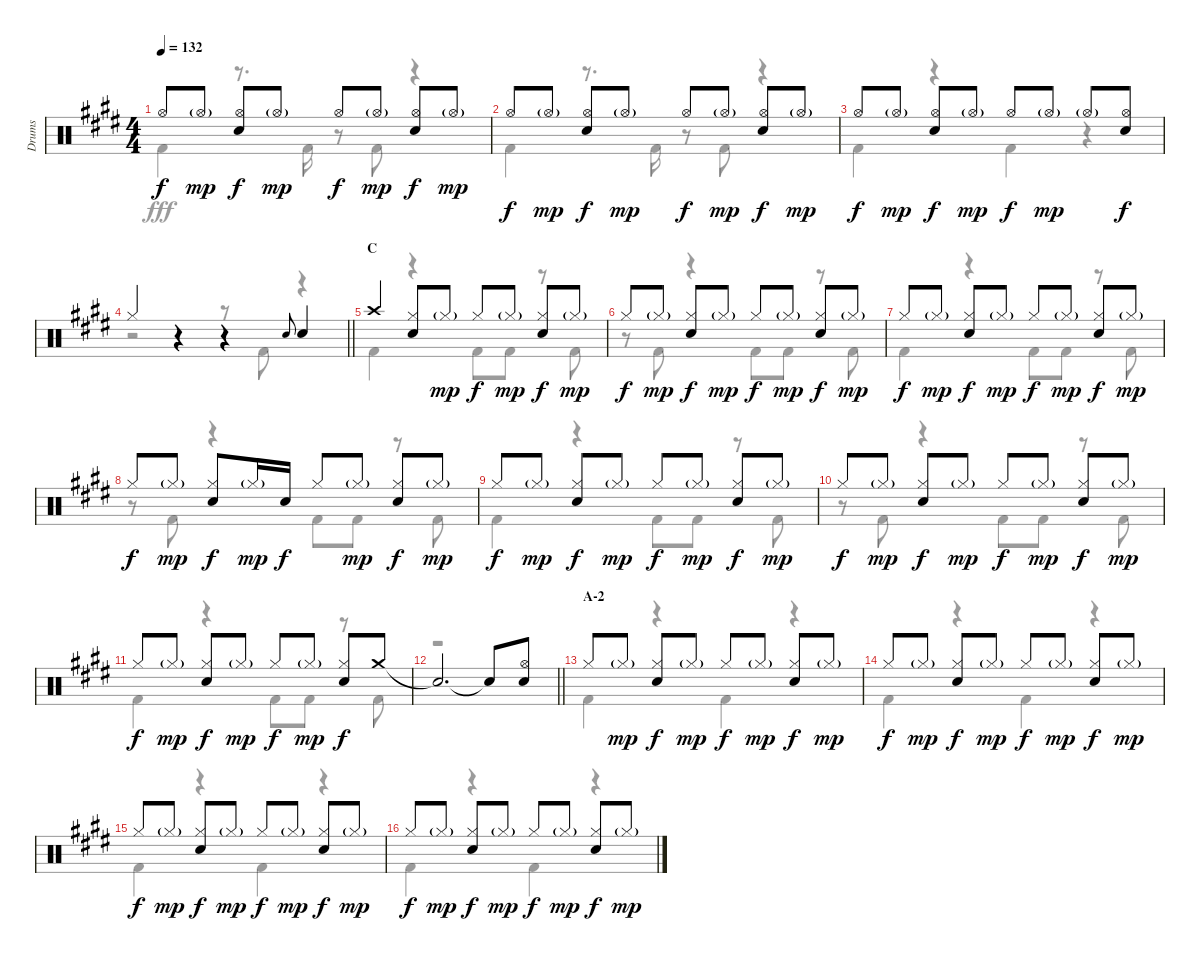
\track ("Drums" "Drums") {instrument percussion}
\staff {score}
\articulation defaults
\voice
\ts (4 4)
\tempo 132
\clef neutral
\ks e "Hi-Hat (open)".8{dy f} "Hi-Hat (open)"{g}.8{dy mp}
("Hi-Hat (open)" "Snare (hit) 2").8{dy f} "Hi-Hat (open)"{g}.8{dy mp} "Hi-Hat (open)".8{dy f} "Hi-Hat (open)"{g}.8{dy mp} ("Hi-Hat (open)" "Snare (hit) 2").8{dy f} "Hi-Hat (open)"{g}.8{dy mp} |
"Hi-Hat (open)".8{dy f} "Hi-Hat (open)"{g}.8{dy mp} ("Hi-Hat (open)" "Snare (hit) 2").8{dy f} "Hi-Hat (open)"{g}.8{dy mp} "Hi-Hat (open)".8{dy f} "Hi-Hat (open)"{g}.8{dy mp} ("Hi-Hat (open)" "Snare (hit) 2").8{dy f} "Hi-Hat (open)"{g}.8{dy mp} |
"Hi-Hat (open)".8{dy f} "Hi-Hat (open)"{g}.8{dy mp} ("Hi-Hat (open)" "Snare (hit) 2").8{dy f} "Hi-Hat (open)"{g}.8{dy mp} "Hi-Hat (open)".8{dy f} "Hi-Hat (open)"{g}.8{dy mp} "Hi-Hat (open)"{g}.8 ("Hi-Hat (open)" "Snare (hit) 2").8{dy f} |
\barLineRight lightlight "Hi-Hat (closed)".4
r.4 r.4 "Snare (hit) 2".8{gr onbeat} "Snare (hit) 2".4 |
\section ("" "C")
"Crash high (hit)".4 ("Hi-Hat (closed)" "Snare (hit) 2").8 "Hi-Hat (closed)"{g}.8{dy mp} "Hi-Hat (closed)".8{dy f} "Hi-Hat (closed)"{g}.8{dy mp} ("Hi-Hat (closed)" "Snare (hit) 2").8{dy f} "Hi-Hat (closed)"{g}.8{dy mp} |
"Hi-Hat (closed)".8{dy f} "Hi-Hat (closed)"{g}.8{dy mp} ("Hi-Hat (closed)" "Snare (hit) 2").8{dy f} "Hi-Hat (closed)"{g}.8{dy mp} "Hi-Hat (closed)".8{dy f} "Hi-Hat (closed)"{g}.8{dy mp} ("Hi-Hat (closed)" "Snare (hit) 2").8{dy f} "Hi-Hat (closed)"{g}.8{dy mp} |
"Hi-Hat (closed)".8{dy f} "Hi-Hat (closed)"{g}.8{dy mp} ("Hi-Hat (closed)" "Snare (hit) 2").8{dy f} "Hi-Hat (closed)"{g}.8{dy mp} "Hi-Hat (closed)".8{dy f} "Hi-Hat (closed)"{g}.8{dy mp} ("Hi-Hat (closed)" "Snare (hit) 2").8{dy f} "Hi-Hat (closed)"{g}.8{dy mp} |
"Hi-Hat (closed)".8{dy f} "Hi-Hat (closed)"{g}.8{dy mp} ("Hi-Hat (closed)" "Snare (hit) 2").8{dy f} "Hi-Hat (closed)"{g}.16{dy mp} "Snare (hit) 2".16{dy f} "Hi-Hat (closed)".8 "Hi-Hat (closed)"{g}.8{dy mp} ("Hi-Hat (closed)" "Snare (hit) 2").8{dy f} "Hi-Hat (closed)"{g}.8{dy mp} |
"Hi-Hat (closed)".8{dy f} "Hi-Hat (closed)"{g}.8{dy mp} ("Hi-Hat (closed)" "Snare (hit) 2").8{dy f} "Hi-Hat (closed)"{g}.8{dy mp} "Hi-Hat (closed)".8{dy f} "Hi-Hat (closed)"{g}.8{dy mp} ("Hi-Hat (closed)" "Snare (hit) 2").8{dy f} "Hi-Hat (closed)"{g}.8{dy mp} |
"Hi-Hat (closed)".8{dy f} "Hi-Hat (closed)"{g}.8{dy mp} ("Hi-Hat (closed)" "Snare (hit) 2").8{dy f} "Hi-Hat (closed)"{g}.8{dy mp} "Hi-Hat (closed)".8{dy f} "Hi-Hat (closed)"{g}.8{dy mp} ("Hi-Hat (closed)" "Snare (hit) 2").8{dy f} "Hi-Hat (closed)"{g}.8{dy mp} |
"Hi-Hat (closed)".8{dy f} "Hi-Hat (closed)"{g}.8{dy mp} ("Hi-Hat (closed)" "Snare (hit) 2").8{dy f} "Hi-Hat (closed)"{g}.8{dy mp} "Hi-Hat (closed)".8{dy f} "Hi-Hat (closed)"{g}.8{dy mp} ("Hi-Hat (closed)" "Snare (hit) 2").8{dy f} "Crash medium (hit)".8 |
\barLineRight lightlight "Snare (hit)"{t}.2{d} "Snare (hit)"{t}.8
("Hi-Hat (open)" "Snare (hit) 2").8 |
\section ("" "A-2")
"Hi-Hat (closed)".8 "Hi-Hat (closed)"{g}.8{dy mp} ("Hi-Hat (closed)" "Snare (hit) 2").8{dy f} "Hi-Hat (closed)"{g}.8{dy mp} "Hi-Hat (closed)".8{dy f} "Hi-Hat (closed)"{g}.8{dy mp} ("Hi-Hat (closed)" "Snare (hit) 2").8{dy f} "Hi-Hat (closed)"{g}.8{dy mp} |
"Hi-Hat (closed)".8{dy f} "Hi-Hat (closed)"{g}.8{dy mp} ("Hi-Hat (closed)" "Snare (hit) 2").8{dy f} "Hi-Hat (closed)"{g}.8{dy mp} "Hi-Hat (closed)".8{dy f} "Hi-Hat (closed)"{g}.8{dy mp} ("Hi-Hat (closed)" "Snare (hit) 2").8{dy f} "Hi-Hat (closed)"{g}.8{dy mp} |
"Hi-Hat (closed)".8{dy f} "Hi-Hat (closed)"{g}.8{dy mp} ("Hi-Hat (closed)" "Snare (hit) 2").8{dy f} "Hi-Hat (closed)"{g}.8{dy mp} "Hi-Hat (closed)".8{dy f} "Hi-Hat (closed)"{g}.8{dy mp} ("Hi-Hat (closed)" "Snare (hit) 2").8{dy f} "Hi-Hat (closed)"{g}.8{dy mp} |
"Hi-Hat (closed)".8{dy f} "Hi-Hat (closed)"{g}.8{dy mp} ("Hi-Hat (closed)" "Snare (hit) 2").8{dy f} "Hi-Hat (closed)"{g}.8{dy mp} "Hi-Hat (closed)".8{dy f} "Hi-Hat (closed)"{g}.8{dy mp} ("Hi-Hat (closed)" "Snare (hit) 2").8{dy f} "Hi-Hat (closed)"{g}.8{dy mp}
\voice
\clef neutral
\ottava regular
\simile none
\ks e "Kick (hit) 2".4{dy fff}
r.8{d} "Kick (hit) 2".16 r.8 "Kick (hit) 2".8 r.4 |
"Kick (hit) 2".4 r.8{d} "Kick (hit) 2".16 r.8 "Kick (hit) 2".8 r.4 |
"Kick (hit) 2".4 r.4 "Kick (hit) 2".4 r.4 |
\barLineRight lightlight
r.2 r.8 "Kick (hit) 2".8 r.4 |
"Kick (hit) 2".4 r.4 "Kick (hit) 2".8 "Kick (hit) 2".8 r.8 "Kick (hit) 2".8 |
r.8 "Kick (hit) 2".8 r.4 "Kick (hit) 2".8 "Kick (hit) 2".8 r.8 "Kick (hit) 2".8 |
"Kick (hit) 2".4 r.4 "Kick (hit) 2".8 "Kick (hit) 2".8 r.8 "Kick (hit) 2".8 |
r.8 "Kick (hit) 2".8 r.4 "Kick (hit) 2".8 "Kick (hit) 2".8 r.8 "Kick (hit) 2".8 |
"Kick (hit) 2".4 r.4 "Kick (hit) 2".8 "Kick (hit) 2".8 r.8 "Kick (hit) 2".8 |
r.8 "Kick (hit) 2".8 r.4 "Kick (hit) 2".8 "Kick (hit) 2".8 r.8 "Kick (hit) 2".8 |
"Kick (hit) 2".4 r.4 "Kick (hit) 2".8 "Kick (hit) 2".8 r.8 "Kick (hit) 2".8 |
\barLineRight lightlight
r.1 |
"Kick (hit) 2".4 r.4 "Kick (hit) 2".4 r.4 |
"Kick (hit) 2".4 r.4 "Kick (hit) 2".4 r.4 |
"Kick (hit) 2".4 r.4 "Kick (hit) 2".4 r.4 |
"Kick (hit) 2".4 r.4 "Kick (hit) 2".4 r.4
